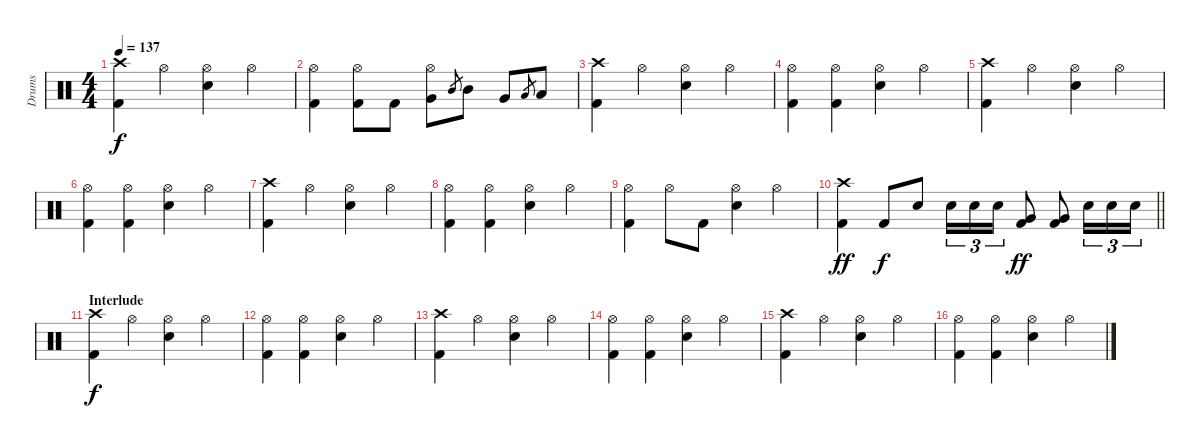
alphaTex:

\track ("Drums" "Drums") {instrument percussion}
\staff {score}
\articulation defaults
\ts (4 4)
\tempo 137
\clef neutral
\ks c
("Crash high (hit)" "Kick (hit) 2").4{dy f} "Hi-Hat (open)".4 ("Hi-Hat (open)" "Snare (hit) 2").4 "Hi-Hat (open)".4 |
("Hi-Hat (open)" "Kick (hit) 2").4 ("Hi-Hat (open)" "Kick (hit) 2").8 "Kick (hit) 2".8 ("Hi-Hat (open)" "Very Low Tom (hit)").8 "Mid Tom (hit)".8{gr} "Mid Tom (hit)".8 "Very Low Tom (hit)".8 "Low Tom (hit)".8{gr} "Low Tom (hit)".8 |
("Crash high (hit)" "Kick (hit) 2").4 "Hi-Hat (open)".4 ("Hi-Hat (open)" "Snare (hit) 2").4 "Hi-Hat (open)".4 |
("Hi-Hat (open)" "Kick (hit) 2").4 ("Hi-Hat (open)" "Kick (hit) 2").4 ("Hi-Hat (open)" "Snare (hit) 2").4 "Hi-Hat (open)".4 |
("Crash high (hit)" "Kick (hit) 2").4 "Hi-Hat (open)".4 ("Hi-Hat (open)" "Snare (hit) 2").4 "Hi-Hat (open)".4 |
("Hi-Hat (open)" "Kick (hit) 2").4 ("Hi-Hat (open)" "Kick (hit) 2").4 ("Hi-Hat (open)" "Snare (hit) 2").4 "Hi-Hat (open)".4 |
("Crash high (hit)" "Kick (hit) 2").4 "Hi-Hat (open)".4 ("Hi-Hat (open)" "Snare (hit) 2").4 "Hi-Hat (open)".4 |
("Hi-Hat (open)" "Kick (hit) 2").4 ("Hi-Hat (open)" "Kick (hit) 2").4 ("Hi-Hat (open)" "Snare (hit) 2").4 "Hi-Hat (open)".4 |
("Hi-Hat (open)" "Kick (hit) 2").4 "Hi-Hat (open)".8 "Kick (hit) 2".8 ("Hi-Hat (open)" "Snare (hit) 2").4 "Hi-Hat (open)".4 |
\barLineRight lightlight
("Crash high (hit)" "Kick (hit) 2").4{dy ff} "Kick (hit) 2".8{dy f} "Snare (hit) 2".8 "Snare (hit) 2".16{tu (3 2)} "Snare (hit) 2".16{tu (3 2)} "Snare (hit) 2".16{tu (3 2)} ("Very Low Tom (hit)" "Kick (hit) 2").8{dy ff} ("Very Low Tom (hit)" "Kick (hit) 2").8 "Snare (hit) 2".16{tu (3 2)} "Snare (hit) 2".16{tu (3 2)} "Snare (hit) 2".16{tu (3 2)} |
\section ("" "Interlude")
("Crash high (hit)" "Kick (hit) 2").4{dy f} "Hi-Hat (open)".4 ("Hi-Hat (open)" "Snare (hit) 2").4 "Hi-Hat (open)".4 |
("Hi-Hat (open)" "Kick (hit) 2").4 ("Hi-Hat (open)" "Kick (hit) 2").4 ("Hi-Hat (open)" "Snare (hit) 2").4 "Hi-Hat (open)".4 |
("Crash high (hit)" "Kick (hit) 2").4 "Hi-Hat (open)".4 ("Hi-Hat (open)" "Snare (hit) 2").4 "Hi-Hat (open)".4 |
("Hi-Hat (open)" "Kick (hit) 2").4 ("Hi-Hat (open)" "Kick (hit) 2").4 ("Hi-Hat (open)" "Snare (hit) 2").4 "Hi-Hat (open)".4 |
("Crash high (hit)" "Kick (hit) 2").4 "Hi-Hat (open)".4 ("Hi-Hat (open)" "Snare (hit) 2").4 "Hi-Hat (open)".4 |
("Hi-Hat (open)" "Kick (hit) 2").4 ("Hi-Hat (open)" "Kick (hit) 2").4 ("Hi-Hat (open)" "Snare (hit) 2").4 "Hi-Hat (open)".4
